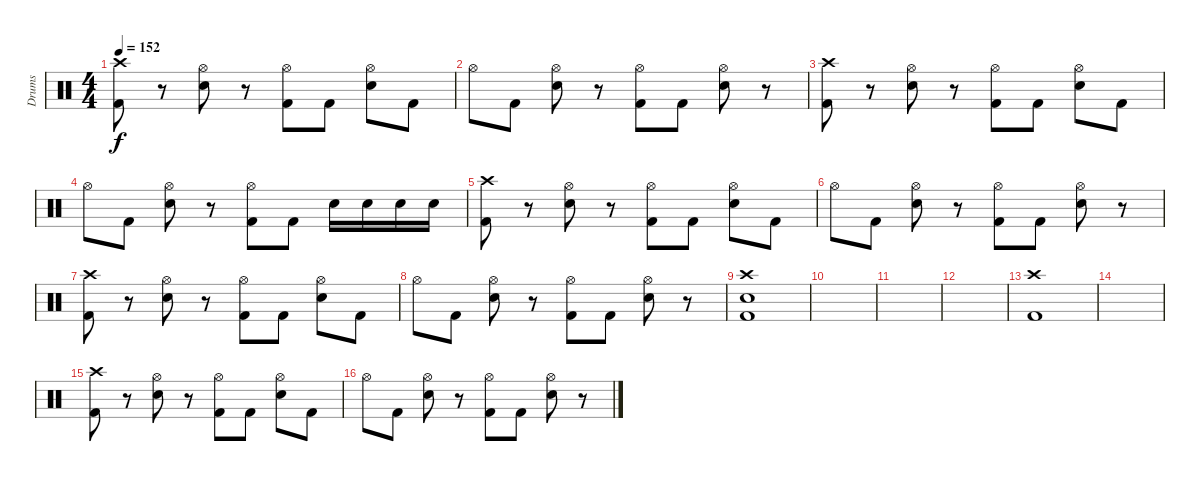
\track ("Drums" "Drums") {instrument percussion}
\staff {score}
\articulation defaults
\ts (4 4)
\tempo 152
\clef neutral
\ks c
("Crash high (hit)" "Kick (hit) 2").8{dy f} r.8 ("Hi-Hat (open)" "Snare (hit) 2").8 r.8 ("Hi-Hat (open)" "Kick (hit) 2").8 "Kick (hit) 2".8 ("Hi-Hat (open)" "Snare (hit) 2").8 "Kick (hit) 2".8 |
"Hi-Hat (open)".8 "Kick (hit) 2".8 ("Hi-Hat (open)" "Snare (hit) 2").8 r.8 ("Hi-Hat (open)" "Kick (hit) 2").8 "Kick (hit) 2".8 ("Hi-Hat (open)" "Snare (hit) 2").8 r.8 |
("Crash high (hit)" "Kick (hit) 2").8 r.8 ("Hi-Hat (open)" "Snare (hit) 2").8 r.8 ("Hi-Hat (open)" "Kick (hit) 2").8 "Kick (hit) 2".8 ("Hi-Hat (open)" "Snare (hit) 2").8 "Kick (hit) 2".8 |
"Hi-Hat (open)".8 "Kick (hit) 2".8 ("Hi-Hat (open)" "Snare (hit) 2").8 r.8 ("Hi-Hat (open)" "Kick (hit) 2").8 "Kick (hit) 2".8 "Snare (hit) 2".16 "Snare (hit) 2".16 "Snare (hit) 2".16 "Snare (hit) 2".16 |
("Crash high (hit)" "Kick (hit) 2").8 r.8 ("Hi-Hat (open)" "Snare (hit) 2").8 r.8 ("Hi-Hat (open)" "Kick (hit) 2").8 "Kick (hit) 2".8 ("Hi-Hat (open)" "Snare (hit) 2").8 "Kick (hit) 2".8 |
"Hi-Hat (open)".8 "Kick (hit) 2".8 ("Hi-Hat (open)" "Snare (hit) 2").8 r.8 ("Hi-Hat (open)" "Kick (hit) 2").8 "Kick (hit) 2".8 ("Hi-Hat (open)" "Snare (hit) 2").8 r.8 |
("Crash high (hit)" "Kick (hit) 2").8 r.8 ("Hi-Hat (open)" "Snare (hit) 2").8 r.8 ("Hi-Hat (open)" "Kick (hit) 2").8 "Kick (hit) 2".8 ("Hi-Hat (open)" "Snare (hit) 2").8 "Kick (hit) 2".8 |
"Hi-Hat (open)".8 "Kick (hit) 2".8 ("Hi-Hat (open)" "Snare (hit) 2").8 r.8 ("Hi-Hat (open)" "Kick (hit) 2").8 "Kick (hit) 2".8 ("Hi-Hat (open)" "Snare (hit) 2").8 r.8 |
("Crash high (hit)" "Snare (hit) 2" "Kick (hit) 2").1 |
|
|
|
("Crash high (hit)" "Kick (hit) 2").1 |
|
("Crash high (hit)" "Kick (hit) 2").8 r.8 ("Hi-Hat (open)" "Snare (hit) 2").8 r.8 ("Hi-Hat (open)" "Kick (hit) 2").8 "Kick (hit) 2".8 ("Hi-Hat (open)" "Snare (hit) 2").8 "Kick (hit) 2".8 |
"Hi-Hat (open)".8 "Kick (hit) 2".8 ("Hi-Hat (open)" "Snare (hit) 2").8 r.8 ("Hi-Hat (open)" "Kick (hit) 2").8 "Kick (hit) 2".8 ("Hi-Hat (open)" "Snare (hit) 2").8 r.8
